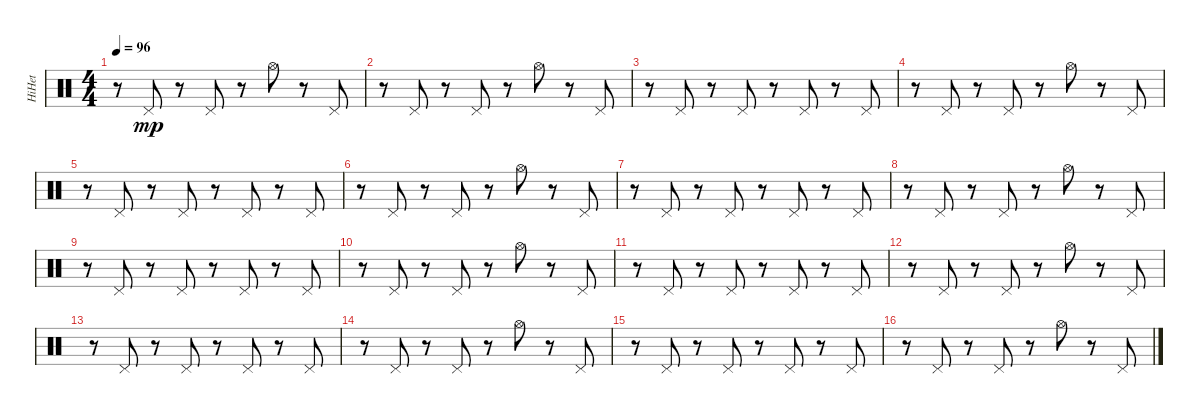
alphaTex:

\track ("HiHet" "HiHet") {instrument percussion}
\staff {score}
\articulation defaults
\ts (4 4)
\tempo 96
\clef neutral
\ks c
r.8{dy mp} "Pedal Hi-Hat (hit)".8 r.8 "Pedal Hi-Hat (hit)".8 r.8 "Hi-Hat (open)".8 r.8 "Pedal Hi-Hat (hit)".8 |
r.8 "Pedal Hi-Hat (hit)".8 r.8 "Pedal Hi-Hat (hit)".8 r.8 "Hi-Hat (open)".8 r.8 "Pedal Hi-Hat (hit)".8 |
r.8 "Pedal Hi-Hat (hit)".8 r.8 "Pedal Hi-Hat (hit)".8 r.8 "Pedal Hi-Hat (hit)".8 r.8 "Pedal Hi-Hat (hit)".8 |
r.8 "Pedal Hi-Hat (hit)".8 r.8 "Pedal Hi-Hat (hit)".8 r.8 "Hi-Hat (open)".8 r.8 "Pedal Hi-Hat (hit)".8 |
r.8 "Pedal Hi-Hat (hit)".8 r.8 "Pedal Hi-Hat (hit)".8 r.8 "Pedal Hi-Hat (hit)".8 r.8 "Pedal Hi-Hat (hit)".8 |
r.8 "Pedal Hi-Hat (hit)".8 r.8 "Pedal Hi-Hat (hit)".8 r.8 "Hi-Hat (open)".8 r.8 "Pedal Hi-Hat (hit)".8 |
r.8 "Pedal Hi-Hat (hit)".8 r.8 "Pedal Hi-Hat (hit)".8 r.8 "Pedal Hi-Hat (hit)".8 r.8 "Pedal Hi-Hat (hit)".8 |
r.8 "Pedal Hi-Hat (hit)".8 r.8 "Pedal Hi-Hat (hit)".8 r.8 "Hi-Hat (open)".8 r.8 "Pedal Hi-Hat (hit)".8 |
r.8 "Pedal Hi-Hat (hit)".8 r.8 "Pedal Hi-Hat (hit)".8 r.8 "Pedal Hi-Hat (hit)".8 r.8 "Pedal Hi-Hat (hit)".8 |
r.8 "Pedal Hi-Hat (hit)".8 r.8 "Pedal Hi-Hat (hit)".8 r.8 "Hi-Hat (open)".8 r.8 "Pedal Hi-Hat (hit)".8 |
r.8 "Pedal Hi-Hat (hit)".8 r.8 "Pedal Hi-Hat (hit)".8 r.8 "Pedal Hi-Hat (hit)".8 r.8 "Pedal Hi-Hat (hit)".8 |
r.8 "Pedal Hi-Hat (hit)".8 r.8 "Pedal Hi-Hat (hit)".8 r.8 "Hi-Hat (open)".8 r.8 "Pedal Hi-Hat (hit)".8 |
r.8 "Pedal Hi-Hat (hit)".8 r.8 "Pedal Hi-Hat (hit)".8 r.8 "Pedal Hi-Hat (hit)".8 r.8 "Pedal Hi-Hat (hit)".8 |
r.8 "Pedal Hi-Hat (hit)".8 r.8 "Pedal Hi-Hat (hit)".8 r.8 "Hi-Hat (open)".8 r.8 "Pedal Hi-Hat (hit)".8 |
r.8 "Pedal Hi-Hat (hit)".8 r.8 "Pedal Hi-Hat (hit)".8 r.8 "Pedal Hi-Hat (hit)".8 r.8 "Pedal Hi-Hat (hit)".8 |
r.8 "Pedal Hi-Hat (hit)".8 r.8 "Pedal Hi-Hat (hit)".8 r.8 "Hi-Hat (open)".8 r.8 "Pedal Hi-Hat (hit)".8
